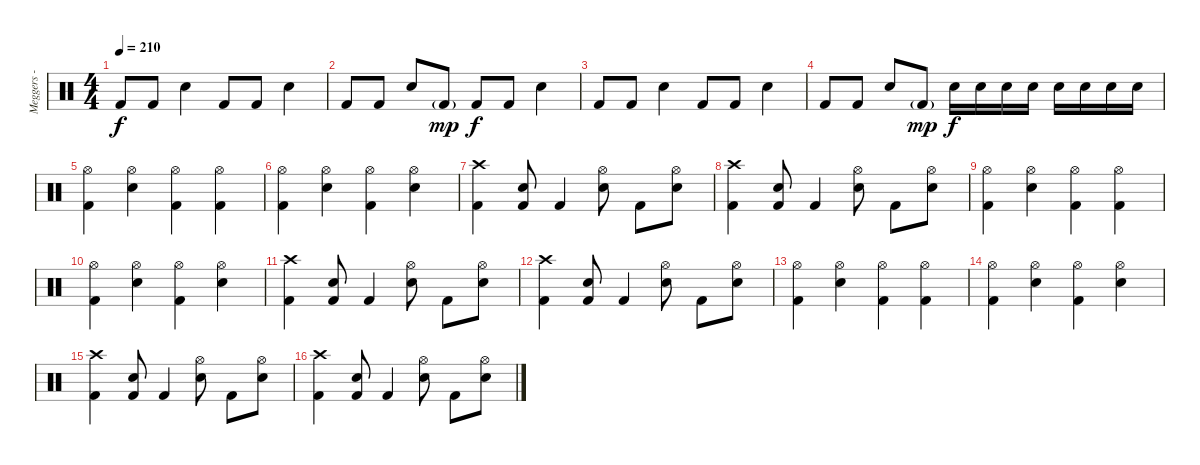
\track ("Meggers - Drums" "Meggers - ") {instrument percussion}
\staff {score}
\articulation defaults
\ts (4 4)
\tempo 210
\clef neutral
\ks c "Kick (hit) 2".8{dy f} "Kick (hit) 2".8 "Electric Snare (hit)".4 "Kick (hit) 2".8 "Kick (hit) 2".8 "Electric Snare (hit)".4
|
"Kick (hit) 2".8 "Kick (hit) 2".8 "Electric Snare (hit)".8 "Kick (hit) 2"{g}.8{dy mp} "Kick (hit) 2".8{dy f} "Kick (hit) 2".8 "Electric Snare (hit)".4 |
"Kick (hit) 2".8 "Kick (hit) 2".8 "Electric Snare (hit)".4 "Kick (hit) 2".8 "Kick (hit) 2".8 "Electric Snare (hit)".4 |
"Kick (hit) 2".8 "Kick (hit) 2".8 "Electric Snare (hit)".8 "Kick (hit) 2"{g}.8{dy mp} "Electric Snare (hit)".16{dy f} "Electric Snare (hit)".16 "Electric Snare (hit)".16 "Electric Snare (hit)".16 "Electric Snare (hit)".16 "Electric Snare (hit)".16 "Electric Snare (hit)".16 "Electric Snare (hit)".16 |
("Hi-Hat (open)" "Kick (hit) 2").4 ("Hi-Hat (open)" "Electric Snare (hit)").4 ("Hi-Hat (open)" "Kick (hit) 2").4 ("Hi-Hat (open)" "Kick (hit) 2").4 |
("Hi-Hat (open)" "Kick (hit) 2").4 ("Hi-Hat (open)" "Electric Snare (hit)").4 ("Hi-Hat (open)" "Kick (hit) 2").4 ("Hi-Hat (open)" "Electric Snare (hit)").4 |
("Crash high (hit)" "Kick (hit) 2").4 ("Electric Snare (hit)" "Kick (hit) 2").8 "Kick (hit) 2".4 ("Hi-Hat (open)" "Electric Snare (hit)").8 "Kick (hit) 2".8 ("Hi-Hat (open)" "Electric Snare (hit)").8 |
("Crash high (hit)" "Kick (hit) 2").4 ("Electric Snare (hit)" "Kick (hit) 2").8 "Kick (hit) 2".4 ("Hi-Hat (open)" "Electric Snare (hit)").8 "Kick (hit) 2".8 ("Hi-Hat (open)" "Electric Snare (hit)").8 |
("Hi-Hat (open)" "Kick (hit) 2").4 ("Hi-Hat (open)" "Electric Snare (hit)").4 ("Hi-Hat (open)" "Kick (hit) 2").4 ("Hi-Hat (open)" "Kick (hit) 2").4 |
("Hi-Hat (open)" "Kick (hit) 2").4 ("Hi-Hat (open)" "Electric Snare (hit)").4 ("Hi-Hat (open)" "Kick (hit) 2").4 ("Hi-Hat (open)" "Electric Snare (hit)").4 |
("Crash high (hit)" "Kick (hit) 2").4 ("Electric Snare (hit)" "Kick (hit) 2").8 "Kick (hit) 2".4 ("Hi-Hat (open)" "Electric Snare (hit)").8 "Kick (hit) 2".8 ("Hi-Hat (open)" "Electric Snare (hit)").8 |
("Crash high (hit)" "Kick (hit) 2").4 ("Electric Snare (hit)" "Kick (hit) 2").8 "Kick (hit) 2".4 ("Hi-Hat (open)" "Electric Snare (hit)").8 "Kick (hit) 2".8 ("Hi-Hat (open)" "Electric Snare (hit)").8 |
("Hi-Hat (open)" "Kick (hit) 2").4 ("Hi-Hat (open)" "Electric Snare (hit)").4 ("Hi-Hat (open)" "Kick (hit) 2").4 ("Hi-Hat (open)" "Kick (hit) 2").4 |
("Hi-Hat (open)" "Kick (hit) 2").4 ("Hi-Hat (open)" "Electric Snare (hit)").4 ("Hi-Hat (open)" "Kick (hit) 2").4 ("Hi-Hat (open)" "Electric Snare (hit)").4 |
("Crash high (hit)" "Kick (hit) 2").4 ("Electric Snare (hit)" "Kick (hit) 2").8 "Kick (hit) 2".4 ("Hi-Hat (open)" "Electric Snare (hit)").8 "Kick (hit) 2".8 ("Hi-Hat (open)" "Electric Snare (hit)").8 |
("Crash high (hit)" "Kick (hit) 2").4 ("Electric Snare (hit)" "Kick (hit) 2").8 "Kick (hit) 2".4 ("Hi-Hat (open)" "Electric Snare (hit)").8 "Kick (hit) 2".8 ("Hi-Hat (open)" "Electric Snare (hit)").8
